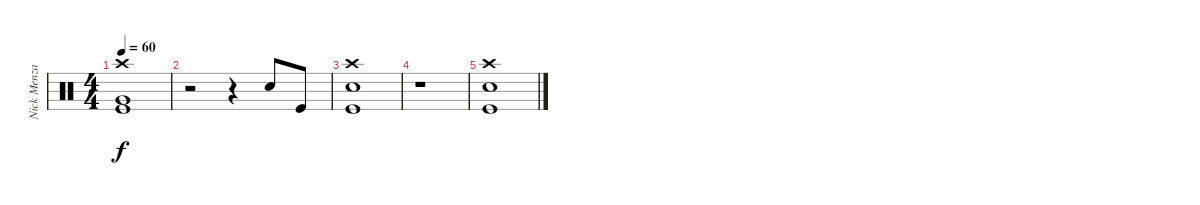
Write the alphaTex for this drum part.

\track ("Nick Menza" "Nick Menza") {instrument percussion}
\staff {score}
\articulation defaults
\ts (4 4)
\tempo 60
\clef neutral
\ks c
("Crash high (hit)" "Very Low Tom (hit)" "Kick (hit)").1{dy f} |
r.2 r.4 "Snare (hit) 2".8 "Kick (hit)".8 |
("Crash high (hit)" "Snare (hit) 2" "Kick (hit)").1 |
r.1 |
("Crash high (hit)" "Snare (hit) 2" "Kick (hit)").1
